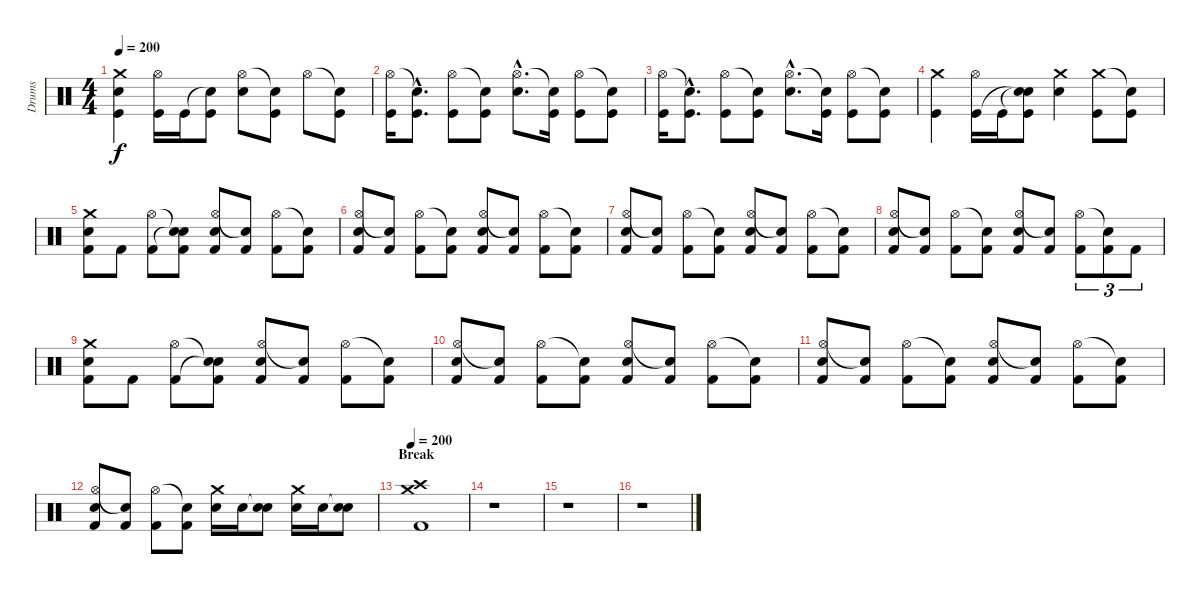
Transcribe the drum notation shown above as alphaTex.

\track ("Drums" "Drums") {instrument percussion}
\staff {score}
\articulation defaults
\ts (4 4)
\tempo 200
\clef neutral
\ks c
("Crash medium (hit)" "Electric Snare (hit)" "Kick (hit)").4{dy f} ("Hi-Hat (open)" "Kick (hit)").16 "Kick (hit)".16 ("Snare (hit)"{t} "Kick (hit)").8 ("Hi-Hat (open)" "Electric Snare (hit)").8 ("Snare (hit)"{t} "Kick (hit)").8 "Hi-Hat (open)".8 ("Snare (hit)"{t} "Kick (hit)").8 |
("Hi-Hat (open)" "Kick (hit)").16 ("Snare (hit)"{hac t} "Kick (hit)"{hac}).8{d} ("Hi-Hat (open)" "Kick (hit)").8 ("Snare (hit)"{t} "Kick (hit)").8 ("Hi-Hat (open)"{hac} "Electric Snare (hit)"{hac}).8{d} ("Snare (hit)"{t} "Kick (hit)").16 ("Hi-Hat (open)" "Kick (hit)").8 ("Snare (hit)"{t} "Kick (hit)").8 |
("Hi-Hat (open)" "Kick (hit)").16 ("Snare (hit)"{hac t} "Kick (hit)"{hac}).8{d} ("Hi-Hat (open)" "Kick (hit)").8 ("Snare (hit)"{t} "Kick (hit)").8 ("Hi-Hat (open)"{hac} "Electric Snare (hit)"{hac}).8{d} ("Snare (hit)"{t} "Kick (hit)").16 ("Hi-Hat (open)" "Kick (hit)").8 ("Snare (hit)"{t} "Kick (hit)").8 |
("Crash medium (hit)" "Kick (hit)").4 ("Hi-Hat (open)" "Kick (hit)").16 "Kick (hit)".16 ("Snare (hit)"{t} "Snare (hit)"{t} "Kick (hit)").8 ("Crash medium (hit)" "Electric Snare (hit)").4 ("Crash medium (hit)" "Kick (hit)").8 ("Snare (hit)"{t} "Kick (hit)").8 |
("Crash medium (hit)" "Electric Snare (hit)" "Kick (hit) 2").8 "Kick (hit) 2".8 ("Hi-Hat (open)" "Kick (hit) 2").8 ("Snare (hit)"{t} "Snare (hit)"{t} "Kick (hit) 2").8 ("Hi-Hat (open)" "Electric Snare (hit)" "Kick (hit) 2").8 ("Snare (hit)"{t} "Kick (hit) 2").8 ("Hi-Hat (open)" "Kick (hit) 2").8 ("Snare (hit)"{t} "Kick (hit) 2").8 |
("Hi-Hat (open)" "Electric Snare (hit)" "Kick (hit) 2").8 ("Snare (hit)"{t} "Kick (hit) 2").8 ("Hi-Hat (open)" "Kick (hit) 2").8 ("Snare (hit)"{t} "Kick (hit) 2").8 ("Hi-Hat (open)" "Electric Snare (hit)" "Kick (hit) 2").8 ("Snare (hit)"{t} "Kick (hit) 2").8 ("Hi-Hat (open)" "Kick (hit) 2").8 ("Snare (hit)"{t} "Kick (hit) 2").8 |
("Hi-Hat (open)" "Electric Snare (hit)" "Kick (hit) 2").8 ("Snare (hit)"{t} "Kick (hit) 2").8 ("Hi-Hat (open)" "Kick (hit) 2").8 ("Snare (hit)"{t} "Kick (hit) 2").8 ("Hi-Hat (open)" "Electric Snare (hit)" "Kick (hit) 2").8 ("Snare (hit)"{t} "Kick (hit) 2").8 ("Hi-Hat (open)" "Kick (hit) 2").8 ("Snare (hit)"{t} "Kick (hit) 2").8 |
("Hi-Hat (open)" "Electric Snare (hit)" "Kick (hit) 2").8 ("Snare (hit)"{t} "Kick (hit) 2").8 ("Hi-Hat (open)" "Kick (hit) 2").8 ("Snare (hit)"{t} "Kick (hit) 2").8 ("Hi-Hat (open)" "Electric Snare (hit)" "Kick (hit) 2").8 ("Snare (hit)"{t} "Kick (hit) 2").8 ("Hi-Hat (open)" "Kick (hit) 2").8{tu (3 2)} ("Snare (hit)"{t} "Kick (hit) 2").8{tu (3 2)} "Kick (hit) 2".8{tu (3 2)} |
("Crash medium (hit)" "Electric Snare (hit)" "Kick (hit) 2").8 "Kick (hit) 2".8 ("Hi-Hat (open)" "Kick (hit) 2").8 ("Snare (hit)"{t} "Snare (hit)"{t} "Kick (hit) 2").8 ("Hi-Hat (open)" "Electric Snare (hit)" "Kick (hit) 2").8 ("Snare (hit)"{t} "Kick (hit) 2").8 ("Hi-Hat (open)" "Kick (hit) 2").8 ("Snare (hit)"{t} "Kick (hit) 2").8 |
("Hi-Hat (open)" "Electric Snare (hit)" "Kick (hit) 2").8 ("Snare (hit)"{t} "Kick (hit) 2").8 ("Hi-Hat (open)" "Kick (hit) 2").8 ("Snare (hit)"{t} "Kick (hit) 2").8 ("Hi-Hat (open)" "Electric Snare (hit)" "Kick (hit) 2").8 ("Snare (hit)"{t} "Kick (hit) 2").8 ("Hi-Hat (open)" "Kick (hit) 2").8 ("Snare (hit)"{t} "Kick (hit) 2").8 |
("Hi-Hat (open)" "Electric Snare (hit)" "Kick (hit) 2").8 ("Snare (hit)"{t} "Kick (hit) 2").8 ("Hi-Hat (open)" "Kick (hit) 2").8 ("Snare (hit)"{t} "Kick (hit) 2").8 ("Hi-Hat (open)" "Electric Snare (hit)" "Kick (hit) 2").8 ("Snare (hit)"{t} "Kick (hit) 2").8 ("Hi-Hat (open)" "Kick (hit) 2").8 ("Snare (hit)"{t} "Kick (hit) 2").8 |
("Hi-Hat (open)" "Electric Snare (hit)" "Kick (hit) 2").8 ("Snare (hit)"{t} "Kick (hit) 2").8 ("Hi-Hat (open)" "Kick (hit) 2").8 ("Snare (hit)"{t} "Kick (hit) 2").8 ("Crash medium (hit)" "Electric Snare (hit)").16 "Electric Snare (hit)".16 ("Snare (hit)"{t} "Electric Snare (hit)").8 ("Crash medium (hit)" "Electric Snare (hit)").16 "Electric Snare (hit)".16 ("Snare (hit)"{t} "Electric Snare (hit)").8 |
\section ("" "Break")
\tempo 200
("Crash medium (hit)" "Crash high (hit)" "Kick (hit) 2").1 |
r.1 |
r.1 |
r.1
